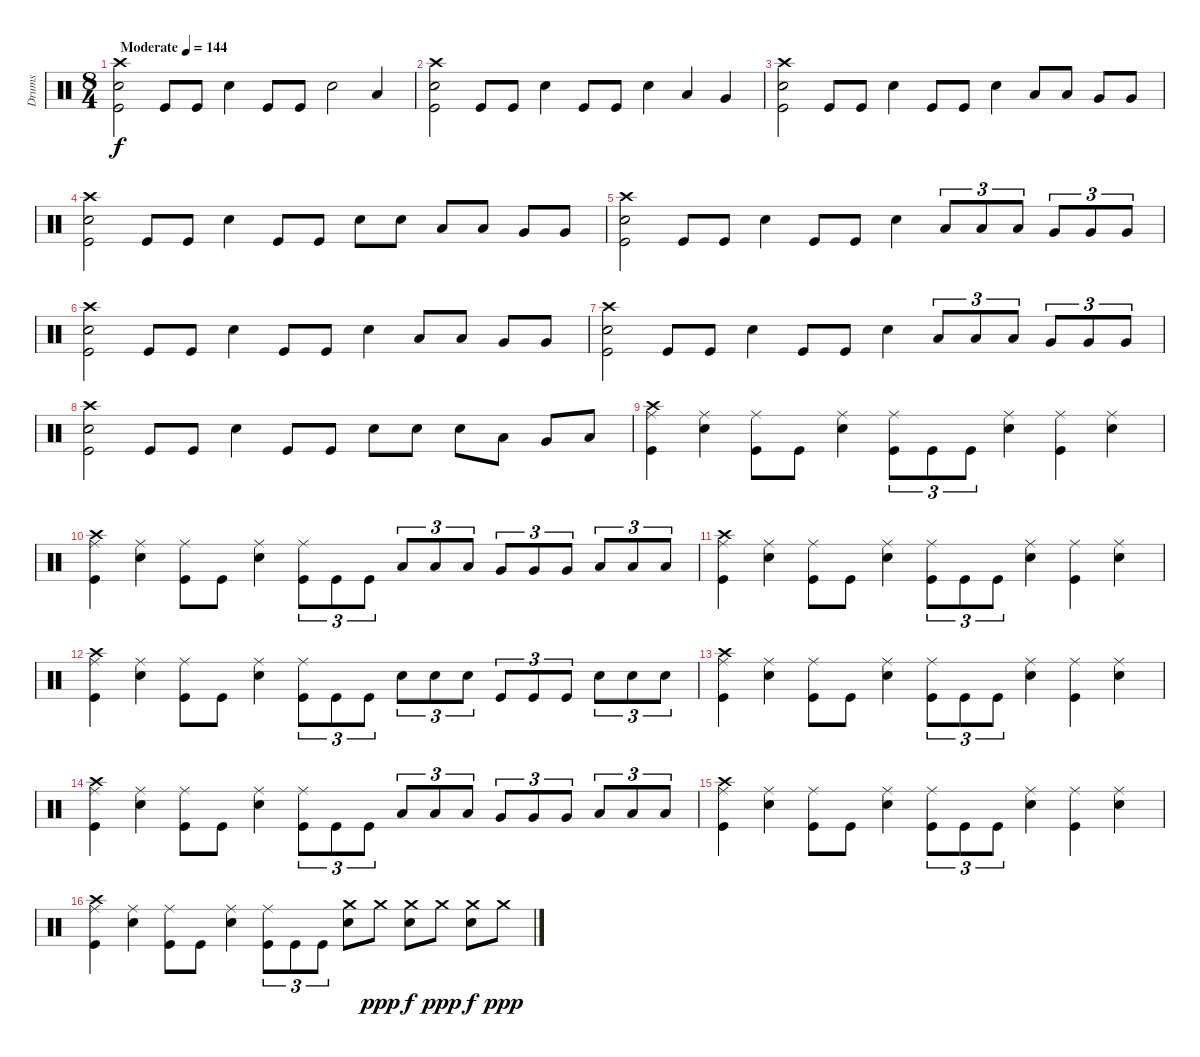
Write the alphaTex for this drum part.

\track ("Drums" "Drums") {instrument percussion}
\staff {score}
\articulation defaults
\ts (8 4)
\tempo (144 "Moderate")
\clef neutral
\ks c
("Crash high (hit)" "Snare (hit) 2" "Kick (hit)").2{dy f} "Kick (hit)".8 "Kick (hit)".8 "Snare (hit) 2".4 "Kick (hit)".8 "Kick (hit)".8 "Snare (hit) 2".2 "Low Tom (hit)".4 |
("Crash high (hit)" "Snare (hit) 2" "Kick (hit)").2 "Kick (hit)".8 "Kick (hit)".8 "Snare (hit) 2".4 "Kick (hit)".8 "Kick (hit)".8 "Snare (hit) 2".4 "Low Tom (hit)".4 "Very Low Tom (hit)".4 |
("Crash high (hit)" "Snare (hit) 2" "Kick (hit)").2 "Kick (hit)".8 "Kick (hit)".8 "Snare (hit) 2".4 "Kick (hit)".8 "Kick (hit)".8 "Snare (hit) 2".4 "Low Tom (hit)".8 "Low Tom (hit)".8 "Very Low Tom (hit)".8 "Very Low Tom (hit)".8 |
("Crash high (hit)" "Snare (hit) 2" "Kick (hit)").2 "Kick (hit)".8 "Kick (hit)".8 "Snare (hit) 2".4 "Kick (hit)".8 "Kick (hit)".8 "Snare (hit) 2".8 "Snare (hit) 2".8 "Low Tom (hit)".8 "Low Tom (hit)".8 "Very Low Tom (hit)".8 "Very Low Tom (hit)".8 |
("Crash high (hit)" "Snare (hit) 2" "Kick (hit)").2 "Kick (hit)".8 "Kick (hit)".8 "Snare (hit) 2".4 "Kick (hit)".8 "Kick (hit)".8 "Snare (hit) 2".4 "Low Tom (hit)".8{tu (3 2)} "Low Tom (hit)".8{tu (3 2)} "Low Tom (hit)".8{tu (3 2)} "Very Low Tom (hit)".8{tu (3 2)} "Very Low Tom (hit)".8{tu (3 2)} "Very Low Tom (hit)".8{tu (3 2)} |
("Crash high (hit)" "Snare (hit) 2" "Kick (hit)").2 "Kick (hit)".8 "Kick (hit)".8 "Snare (hit) 2".4 "Kick (hit)".8 "Kick (hit)".8 "Snare (hit) 2".4 "Low Tom (hit)".8 "Low Tom (hit)".8 "Very Low Tom (hit)".8 "Very Low Tom (hit)".8 |
("Crash high (hit)" "Snare (hit) 2" "Kick (hit)").2 "Kick (hit)".8 "Kick (hit)".8 "Snare (hit) 2".4 "Kick (hit)".8 "Kick (hit)".8 "Snare (hit) 2".4 "Low Tom (hit)".8{tu (3 2)} "Low Tom (hit)".8{tu (3 2)} "Low Tom (hit)".8{tu (3 2)} "Very Low Tom (hit)".8{tu (3 2)} "Very Low Tom (hit)".8{tu (3 2)} "Very Low Tom (hit)".8{tu (3 2)} |
("Crash high (hit)" "Snare (hit) 2" "Kick (hit)").2 "Kick (hit)".8 "Kick (hit)".8 "Snare (hit) 2".4 "Kick (hit)".8 "Kick (hit)".8 "Snare (hit) 2".8 "Snare (hit) 2".8 "Snare (hit) 2".8 "Low Tom (hit)".8 "Very Low Tom (hit)".8 "Low Floor Tom (hit)".8 |
("Crash high (hit)" "Ride (middle)" "Kick (hit)").4 ("Ride (middle)" "Snare (hit) 2").4 ("Ride (middle)" "Kick (hit)").8 "Kick (hit)".8 ("Ride (middle)" "Snare (hit) 2").4 ("Ride (middle)" "Kick (hit)").8{tu (3 2)} "Kick (hit)".8{tu (3 2)} "Kick (hit)".8{tu (3 2)} ("Ride (middle)" "Snare (hit) 2").4 ("Ride (middle)" "Kick (hit)").4 ("Ride (middle)" "Snare (hit) 2").4 |
("Crash high (hit)" "Ride (middle)" "Kick (hit)").4 ("Ride (middle)" "Snare (hit) 2").4 ("Ride (middle)" "Kick (hit)").8 "Kick (hit)".8 ("Ride (middle)" "Snare (hit) 2").4 ("Ride (middle)" "Kick (hit)").8{tu (3 2)} "Kick (hit)".8{tu (3 2)} "Kick (hit)".8{tu (3 2)} "Low Tom (hit)".8{tu (3 2)} "Low Tom (hit)".8{tu (3 2)} "Low Tom (hit)".8{tu (3 2)} "Very Low Tom (hit)".8{tu (3 2)} "Very Low Tom (hit)".8{tu (3 2)} "Very Low Tom (hit)".8{tu (3 2)} "Low Floor Tom (hit)".8{tu (3 2)} "Low Floor Tom (hit)".8{tu (3 2)} "Low Floor Tom (hit)".8{tu (3 2)} |
("Crash high (hit)" "Ride (middle)" "Kick (hit)").4 ("Ride (middle)" "Snare (hit) 2").4 ("Ride (middle)" "Kick (hit)").8 "Kick (hit)".8 ("Ride (middle)" "Snare (hit) 2").4 ("Ride (middle)" "Kick (hit)").8{tu (3 2)} "Kick (hit)".8{tu (3 2)} "Kick (hit)".8{tu (3 2)} ("Ride (middle)" "Snare (hit) 2").4 ("Ride (middle)" "Kick (hit)").4 ("Ride (middle)" "Snare (hit) 2").4 |
("Crash high (hit)" "Ride (middle)" "Kick (hit)").4 ("Ride (middle)" "Snare (hit) 2").4 ("Ride (middle)" "Kick (hit)").8 "Kick (hit)".8 ("Ride (middle)" "Snare (hit) 2").4 ("Ride (middle)" "Kick (hit)").8{tu (3 2)} "Kick (hit)".8{tu (3 2)} "Kick (hit)".8{tu (3 2)} "Snare (hit) 2".8{tu (3 2)} "Snare (hit) 2".8{tu (3 2)} "Snare (hit) 2".8{tu (3 2)} "Kick (hit)".8{tu (3 2)} "Kick (hit)".8{tu (3 2)} "Kick (hit)".8{tu (3 2)} "Snare (hit) 2".8{tu (3 2)} "Snare (hit) 2".8{tu (3 2)} "Snare (hit) 2".8{tu (3 2)} |
("Crash high (hit)" "Ride (middle)" "Kick (hit)").4 ("Ride (middle)" "Snare (hit) 2").4 ("Ride (middle)" "Kick (hit)").8 "Kick (hit)".8 ("Ride (middle)" "Snare (hit) 2").4 ("Ride (middle)" "Kick (hit)").8{tu (3 2)} "Kick (hit)".8{tu (3 2)} "Kick (hit)".8{tu (3 2)} ("Ride (middle)" "Snare (hit) 2").4 ("Ride (middle)" "Kick (hit)").4 ("Ride (middle)" "Snare (hit) 2").4 |
("Crash high (hit)" "Ride (middle)" "Kick (hit)").4 ("Ride (middle)" "Snare (hit) 2").4 ("Ride (middle)" "Kick (hit)").8 "Kick (hit)".8 ("Ride (middle)" "Snare (hit) 2").4 ("Ride (middle)" "Kick (hit)").8{tu (3 2)} "Kick (hit)".8{tu (3 2)} "Kick (hit)".8{tu (3 2)} "Low Tom (hit)".8{tu (3 2)} "Low Tom (hit)".8{tu (3 2)} "Low Tom (hit)".8{tu (3 2)} "Very Low Tom (hit)".8{tu (3 2)} "Very Low Tom (hit)".8{tu (3 2)} "Very Low Tom (hit)".8{tu (3 2)} "Low Floor Tom (hit)".8{tu (3 2)} "Low Floor Tom (hit)".8{tu (3 2)} "Low Floor Tom (hit)".8{tu (3 2)} |
("Crash high (hit)" "Ride (middle)" "Kick (hit)").4 ("Ride (middle)" "Snare (hit) 2").4 ("Ride (middle)" "Kick (hit)").8 "Kick (hit)".8 ("Ride (middle)" "Snare (hit) 2").4 ("Ride (middle)" "Kick (hit)").8{tu (3 2)} "Kick (hit)".8{tu (3 2)} "Kick (hit)".8{tu (3 2)} ("Ride (middle)" "Snare (hit) 2").4 ("Ride (middle)" "Kick (hit)").4 ("Ride (middle)" "Snare (hit) 2").4 |
("Crash high (hit)" "Ride (middle)" "Kick (hit)").4 ("Ride (middle)" "Snare (hit) 2").4 ("Ride (middle)" "Kick (hit)").8 "Kick (hit)".8 ("Ride (middle)" "Snare (hit) 2").4 ("Ride (middle)" "Kick (hit)").8{tu (3 2)} "Kick (hit)".8{tu (3 2)} "Kick (hit)".8{tu (3 2)} ("Crash medium (hit)" "Snare (hit) 2").8 "Crash medium (hit)".8{dy ppp} ("Crash medium (hit)" "Snare (hit) 2").8{dy f} "Crash medium (hit)".8{dy ppp} ("Crash medium (hit)" "Snare (hit) 2").8{dy f} "Crash medium (hit)".8{dy ppp}
